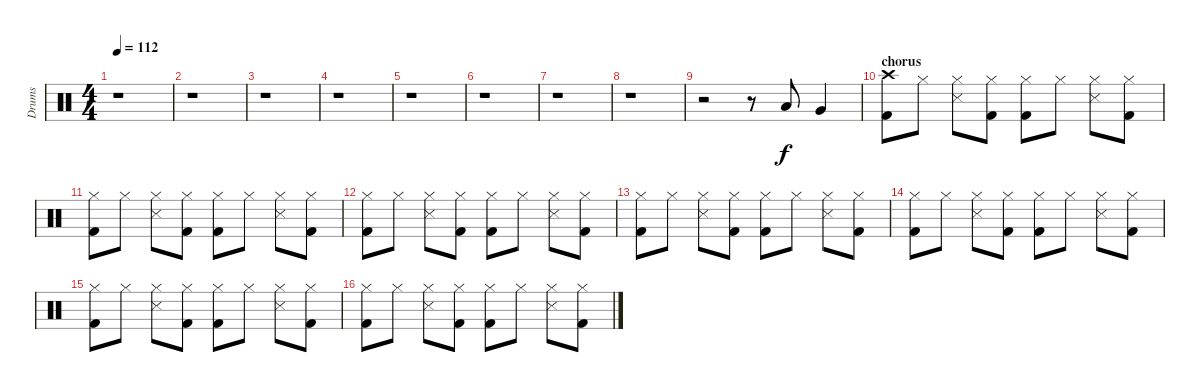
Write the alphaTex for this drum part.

\track ("Drums" "Drums") {instrument percussion}
\staff {score}
\articulation defaults
\ts (4 4)
\tempo 112
\clef neutral
\ks c
r.1{dy f} |
r.1 |
r.1 |
r.1 |
r.1 |
r.1 |
r.1 |
r.1 |
r.2 r.8 "Low Floor Tom (hit)".8 "Very Low Tom (hit)".4 |
\section ("" "chorus")
("Crash high (hit)" "Kick (hit) 2").8 "Hi-Hat (closed)".8 ("Hi-Hat (closed)" "Snare (side stick) 3").8 ("Hi-Hat (closed)" "Kick (hit) 2").8 ("Hi-Hat (closed)" "Kick (hit) 2").8 "Hi-Hat (closed)".8 ("Hi-Hat (closed)" "Snare (side stick) 3").8 ("Hi-Hat (closed)" "Kick (hit) 2").8 |
("Hi-Hat (closed)" "Kick (hit) 2").8 "Hi-Hat (closed)".8 ("Hi-Hat (closed)" "Snare (side stick) 3").8 ("Hi-Hat (closed)" "Kick (hit) 2").8 ("Hi-Hat (closed)" "Kick (hit) 2").8 "Hi-Hat (closed)".8 ("Hi-Hat (closed)" "Snare (side stick) 3").8 ("Hi-Hat (closed)" "Kick (hit) 2").8 |
("Hi-Hat (closed)" "Kick (hit) 2").8 "Hi-Hat (closed)".8 ("Hi-Hat (closed)" "Snare (side stick) 3").8 ("Hi-Hat (closed)" "Kick (hit) 2").8 ("Hi-Hat (closed)" "Kick (hit) 2").8 "Hi-Hat (closed)".8 ("Hi-Hat (closed)" "Snare (side stick) 3").8 ("Hi-Hat (closed)" "Kick (hit) 2").8 |
("Hi-Hat (closed)" "Kick (hit) 2").8 "Hi-Hat (closed)".8 ("Hi-Hat (closed)" "Snare (side stick) 3").8 ("Hi-Hat (closed)" "Kick (hit) 2").8 ("Hi-Hat (closed)" "Kick (hit) 2").8 "Hi-Hat (closed)".8 ("Hi-Hat (closed)" "Snare (side stick) 3").8 ("Hi-Hat (closed)" "Kick (hit) 2").8 |
("Hi-Hat (closed)" "Kick (hit) 2").8 "Hi-Hat (closed)".8 ("Hi-Hat (closed)" "Snare (side stick) 3").8 ("Hi-Hat (closed)" "Kick (hit) 2").8 ("Hi-Hat (closed)" "Kick (hit) 2").8 "Hi-Hat (closed)".8 ("Hi-Hat (closed)" "Snare (side stick) 3").8 ("Hi-Hat (closed)" "Kick (hit) 2").8 |
("Hi-Hat (closed)" "Kick (hit) 2").8 "Hi-Hat (closed)".8 ("Hi-Hat (closed)" "Snare (side stick) 3").8 ("Hi-Hat (closed)" "Kick (hit) 2").8 ("Hi-Hat (closed)" "Kick (hit) 2").8 "Hi-Hat (closed)".8 ("Hi-Hat (closed)" "Snare (side stick) 3").8 ("Hi-Hat (closed)" "Kick (hit) 2").8 |
("Hi-Hat (closed)" "Kick (hit) 2").8 "Hi-Hat (closed)".8 ("Hi-Hat (closed)" "Snare (side stick) 3").8 ("Hi-Hat (closed)" "Kick (hit) 2").8 ("Hi-Hat (closed)" "Kick (hit) 2").8 "Hi-Hat (closed)".8 ("Hi-Hat (closed)" "Snare (side stick) 3").8 ("Hi-Hat (closed)" "Kick (hit) 2").8
